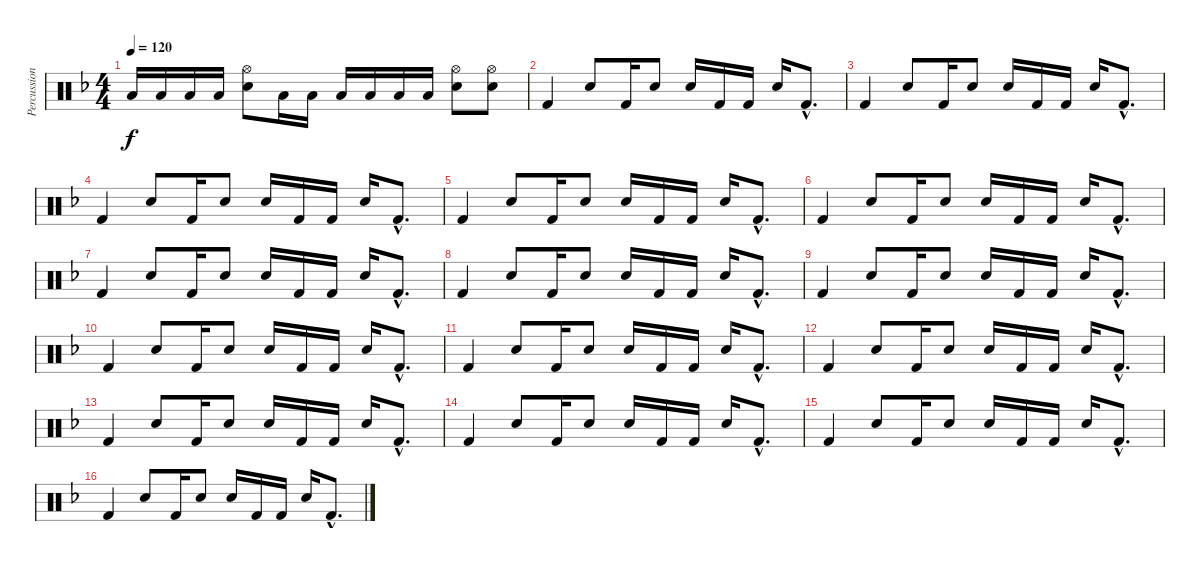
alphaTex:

\track ("Percussion" "Percussion") {instrument percussion}
\staff {score}
\articulation defaults
\ts (4 4)
\tempo 120
\clef neutral
\ks dminor "Low Floor Tom (hit)".16{dy f} "Low Floor Tom (hit)".16 "Low Floor Tom (hit)".16 "Low Floor Tom (hit)".16
("Hi-Hat (open)" "Snare (hit) 2").8 "Low Floor Tom (hit)".16 "Low Floor Tom (hit)".16 "Low Floor Tom (hit)".16 "Low Floor Tom (hit)".16 "Low Floor Tom (hit)".16 "Low Floor Tom (hit)".16 ("Hi-Hat (open)" "Snare (hit) 2").8 ("Hi-Hat (open)" "Snare (hit) 2").8 |
"Kick (hit) 2".4 "Snare (hit) 2".8 "Kick (hit) 2".16 "Snare (hit) 2".8 "Snare (hit) 2".16 "Kick (hit) 2".16 "Kick (hit) 2".16 "Snare (hit) 2".16 "Kick (hit) 2"{hac}.8{d} |
"Kick (hit) 2".4 "Snare (hit) 2".8 "Kick (hit) 2".16 "Snare (hit) 2".8 "Snare (hit) 2".16 "Kick (hit) 2".16 "Kick (hit) 2".16 "Snare (hit) 2".16 "Kick (hit) 2"{hac}.8{d} |
"Kick (hit) 2".4 "Snare (hit) 2".8 "Kick (hit) 2".16 "Snare (hit) 2".8 "Snare (hit) 2".16 "Kick (hit) 2".16 "Kick (hit) 2".16 "Snare (hit) 2".16 "Kick (hit) 2"{hac}.8{d} |
"Kick (hit) 2".4 "Snare (hit) 2".8 "Kick (hit) 2".16 "Snare (hit) 2".8 "Snare (hit) 2".16 "Kick (hit) 2".16 "Kick (hit) 2".16 "Snare (hit) 2".16 "Kick (hit) 2"{hac}.8{d} |
"Kick (hit) 2".4 "Snare (hit) 2".8 "Kick (hit) 2".16 "Snare (hit) 2".8 "Snare (hit) 2".16 "Kick (hit) 2".16 "Kick (hit) 2".16 "Snare (hit) 2".16 "Kick (hit) 2"{hac}.8{d} |
"Kick (hit) 2".4 "Snare (hit) 2".8 "Kick (hit) 2".16 "Snare (hit) 2".8 "Snare (hit) 2".16 "Kick (hit) 2".16 "Kick (hit) 2".16 "Snare (hit) 2".16 "Kick (hit) 2"{hac}.8{d} |
"Kick (hit) 2".4 "Snare (hit) 2".8 "Kick (hit) 2".16 "Snare (hit) 2".8 "Snare (hit) 2".16 "Kick (hit) 2".16 "Kick (hit) 2".16 "Snare (hit) 2".16 "Kick (hit) 2"{hac}.8{d} |
"Kick (hit) 2".4 "Snare (hit) 2".8 "Kick (hit) 2".16 "Snare (hit) 2".8 "Snare (hit) 2".16 "Kick (hit) 2".16 "Kick (hit) 2".16 "Snare (hit) 2".16 "Kick (hit) 2"{hac}.8{d} |
"Kick (hit) 2".4 "Snare (hit) 2".8 "Kick (hit) 2".16 "Snare (hit) 2".8 "Snare (hit) 2".16 "Kick (hit) 2".16 "Kick (hit) 2".16 "Snare (hit) 2".16 "Kick (hit) 2"{hac}.8{d} |
"Kick (hit) 2".4 "Snare (hit) 2".8 "Kick (hit) 2".16 "Snare (hit) 2".8 "Snare (hit) 2".16 "Kick (hit) 2".16 "Kick (hit) 2".16 "Snare (hit) 2".16 "Kick (hit) 2"{hac}.8{d} |
"Kick (hit) 2".4 "Snare (hit) 2".8 "Kick (hit) 2".16 "Snare (hit) 2".8 "Snare (hit) 2".16 "Kick (hit) 2".16 "Kick (hit) 2".16 "Snare (hit) 2".16 "Kick (hit) 2"{hac}.8{d} |
"Kick (hit) 2".4 "Snare (hit) 2".8 "Kick (hit) 2".16 "Snare (hit) 2".8 "Snare (hit) 2".16 "Kick (hit) 2".16 "Kick (hit) 2".16 "Snare (hit) 2".16 "Kick (hit) 2"{hac}.8{d} |
"Kick (hit) 2".4 "Snare (hit) 2".8 "Kick (hit) 2".16 "Snare (hit) 2".8 "Snare (hit) 2".16 "Kick (hit) 2".16 "Kick (hit) 2".16 "Snare (hit) 2".16 "Kick (hit) 2"{hac}.8{d} |
"Kick (hit) 2".4 "Snare (hit) 2".8 "Kick (hit) 2".16 "Snare (hit) 2".8 "Snare (hit) 2".16 "Kick (hit) 2".16 "Kick (hit) 2".16 "Snare (hit) 2".16 "Kick (hit) 2"{hac}.8{d} |
"Kick (hit) 2".4 "Snare (hit) 2".8 "Kick (hit) 2".16 "Snare (hit) 2".8 "Snare (hit) 2".16 "Kick (hit) 2".16 "Kick (hit) 2".16 "Snare (hit) 2".16 "Kick (hit) 2"{hac}.8{d}
